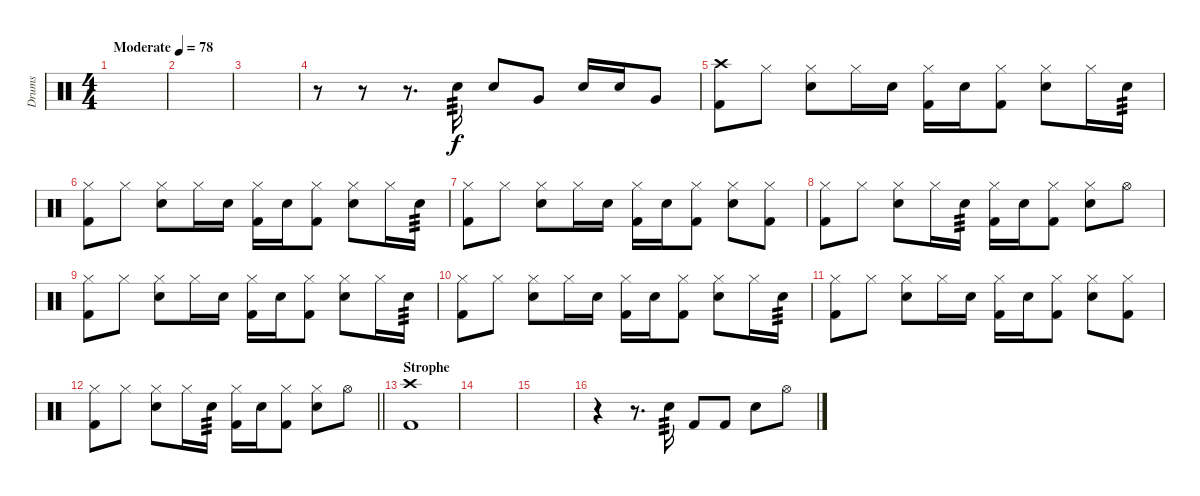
\track ("Drums" "Drums") {instrument percussion}
\staff {score}
\articulation defaults
\ts (4 4)
\tempo (78 "Moderate")
\clef neutral
\ks c
|
|
|
r.8 r.8 r.8{d} "Snare (hit) 2".16{tp 3} "Snare (hit) 2".8 "Very Low Tom (hit)".8 "Snare (hit) 2".16 "Snare (hit) 2".16 "Very Low Tom (hit)".8 |
("Crash high (hit)" "Kick (hit) 2").8 "Hi-Hat (closed)".8 ("Hi-Hat (closed)" "Snare (hit) 2").8 "Hi-Hat (closed)".16 "Snare (hit) 2".16 ("Hi-Hat (closed)" "Kick (hit) 2").16 "Snare (hit) 2".16 ("Hi-Hat (closed)" "Kick (hit) 2").8 ("Hi-Hat (closed)" "Snare (hit) 2").8 "Hi-Hat (closed)".16 "Snare (hit) 2".16{tp 3} |
("Hi-Hat (closed)" "Kick (hit) 2").8 "Hi-Hat (closed)".8 ("Hi-Hat (closed)" "Snare (hit) 2").8 "Hi-Hat (closed)".16 "Snare (hit) 2".16 ("Hi-Hat (closed)" "Kick (hit) 2").16 "Snare (hit) 2".16 ("Hi-Hat (closed)" "Kick (hit) 2").8 ("Hi-Hat (closed)" "Snare (hit) 2").8 "Hi-Hat (closed)".16 "Snare (hit) 2".16{tp 3} |
("Hi-Hat (closed)" "Kick (hit) 2").8 "Hi-Hat (closed)".8 ("Hi-Hat (closed)" "Snare (hit) 2").8 "Hi-Hat (closed)".16 "Snare (hit) 2".16 ("Hi-Hat (closed)" "Kick (hit) 2").16 "Snare (hit) 2".16 ("Hi-Hat (closed)" "Kick (hit) 2").8 ("Hi-Hat (closed)" "Snare (hit) 2").8 ("Hi-Hat (closed)" "Kick (hit) 2").8 |
("Hi-Hat (closed)" "Kick (hit) 2").8 "Hi-Hat (closed)".8 ("Hi-Hat (closed)" "Snare (hit) 2").8 "Hi-Hat (closed)".16 "Snare (hit) 2".16{tp 3} ("Hi-Hat (closed)" "Kick (hit) 2").16 "Snare (hit) 2".16 ("Hi-Hat (closed)" "Kick (hit) 2").8 ("Hi-Hat (closed)" "Snare (hit) 2").8 "Hi-Hat (open)".8 |
("Hi-Hat (closed)" "Kick (hit) 2").8 "Hi-Hat (closed)".8 ("Hi-Hat (closed)" "Snare (hit) 2").8 "Hi-Hat (closed)".16 "Snare (hit) 2".16 ("Hi-Hat (closed)" "Kick (hit) 2").16 "Snare (hit) 2".16 ("Hi-Hat (closed)" "Kick (hit) 2").8 ("Hi-Hat (closed)" "Snare (hit) 2").8 "Hi-Hat (closed)".16 "Snare (hit) 2".16{tp 3} |
("Hi-Hat (closed)" "Kick (hit) 2").8 "Hi-Hat (closed)".8 ("Hi-Hat (closed)" "Snare (hit) 2").8 "Hi-Hat (closed)".16 "Snare (hit) 2".16 ("Hi-Hat (closed)" "Kick (hit) 2").16 "Snare (hit) 2".16 ("Hi-Hat (closed)" "Kick (hit) 2").8 ("Hi-Hat (closed)" "Snare (hit) 2").8 "Hi-Hat (closed)".16 "Snare (hit) 2".16{tp 3} |
("Hi-Hat (closed)" "Kick (hit) 2").8 "Hi-Hat (closed)".8 ("Hi-Hat (closed)" "Snare (hit) 2").8 "Hi-Hat (closed)".16 "Snare (hit) 2".16 ("Hi-Hat (closed)" "Kick (hit) 2").16 "Snare (hit) 2".16 ("Hi-Hat (closed)" "Kick (hit) 2").8 ("Hi-Hat (closed)" "Snare (hit) 2").8 ("Hi-Hat (closed)" "Kick (hit) 2").8 |
\barLineRight lightlight
("Hi-Hat (closed)" "Kick (hit) 2").8 "Hi-Hat (closed)".8 ("Hi-Hat (closed)" "Snare (hit) 2").8 "Hi-Hat (closed)".16 "Snare (hit) 2".16{tp 3} ("Hi-Hat (closed)" "Kick (hit) 2").16 "Snare (hit) 2".16 ("Hi-Hat (closed)" "Kick (hit) 2").8 ("Hi-Hat (closed)" "Snare (hit) 2").8 "Hi-Hat (open)".8 |
\section ("" "Strophe")
("Crash high (hit)" "Kick (hit) 2").1 |
|
|
r.4 r.8{d} "Snare (hit) 2".16{tp 3} "Kick (hit) 2".8 "Kick (hit) 2".8 "Snare (hit) 2".8 "Hi-Hat (open)".8
